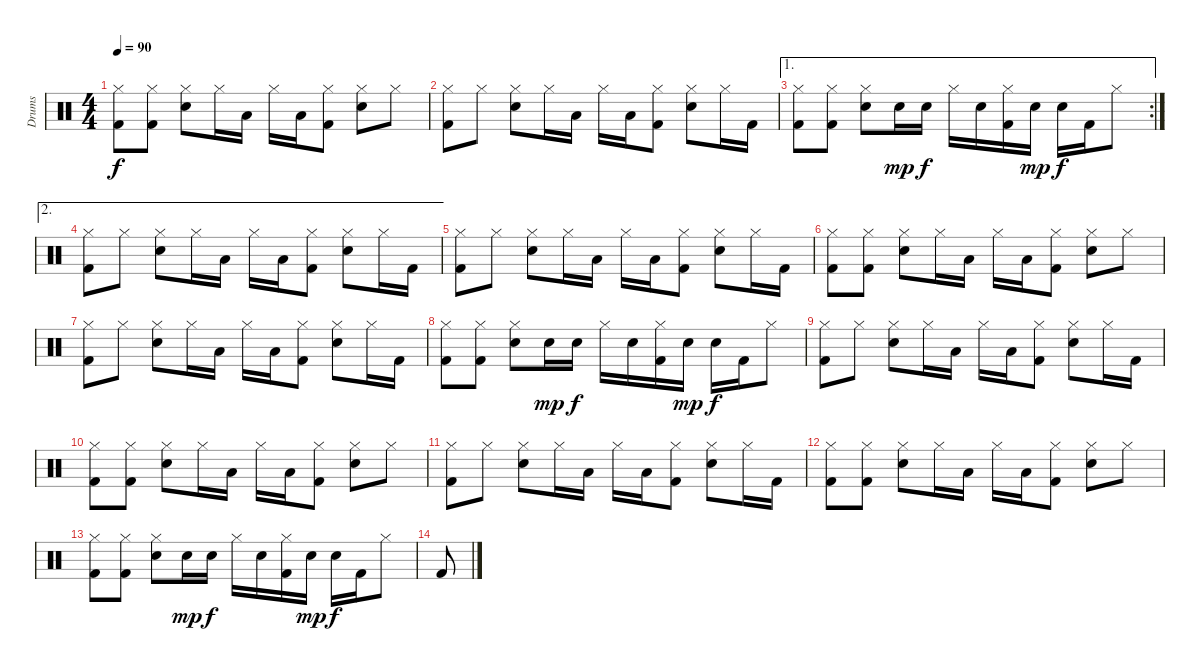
\track ("Drums" "Drums") {instrument percussion}
\staff {score}
\articulation defaults
\ts (4 4)
\tempo 90
\clef neutral
\ks c
("Hi-Hat (closed)" "Kick (hit) 2").8{dy f} ("Hi-Hat (closed)" "Kick (hit) 2").8 ("Hand Clap (hit)" "Hi-Hat (closed)").8 "Hi-Hat (closed)".16 "Low Tom (hit)".16 "Hi-Hat (closed)".16 "Low Tom (hit)".16 ("Hi-Hat (closed)" "Kick (hit) 2").8 ("Hand Clap (hit)" "Hi-Hat (closed)").8 "Hi-Hat (closed)".8 |
("Hi-Hat (closed)" "Kick (hit) 2").8 "Hi-Hat (closed)".8 ("Hand Clap (hit)" "Hi-Hat (closed)").8 "Hi-Hat (closed)".16 "Low Tom (hit)".16 "Hi-Hat (closed)".16 "Low Tom (hit)".16 ("Hi-Hat (closed)" "Kick (hit) 2").8 ("Hand Clap (hit)" "Hi-Hat (closed)").8 "Hi-Hat (closed)".16 "Kick (hit) 2".16 |
\ae 1
\rc 2
("Hi-Hat (closed)" "Kick (hit) 2").8 ("Hi-Hat (closed)" "Kick (hit) 2").8 ("Hand Clap (hit)" "Hi-Hat (closed)").8 "Electric Snare (hit)".16{dy mp} "Electric Snare (hit)".16{dy f} "Hi-Hat (closed)".16 "Electric Snare (hit)".16 ("Hi-Hat (closed)" "Kick (hit) 2").16 "Electric Snare (hit)".16{dy mp} "Electric Snare (hit)".16{dy f} "Kick (hit) 2".16 "Hi-Hat (closed)".8 |
\ae 2
("Hi-Hat (closed)" "Kick (hit) 2").8 "Hi-Hat (closed)".8 ("Hand Clap (hit)" "Hi-Hat (closed)").8 "Hi-Hat (closed)".16 "Low Tom (hit)".16 "Hi-Hat (closed)".16 "Low Tom (hit)".16 ("Hi-Hat (closed)" "Kick (hit) 2").8 ("Hand Clap (hit)" "Hi-Hat (closed)").8 "Hi-Hat (closed)".16 "Kick (hit) 2".16 |
("Hi-Hat (closed)" "Kick (hit) 2").8 "Hi-Hat (closed)".8 ("Hand Clap (hit)" "Hi-Hat (closed)").8 "Hi-Hat (closed)".16 "Low Tom (hit)".16 "Hi-Hat (closed)".16 "Low Tom (hit)".16 ("Hi-Hat (closed)" "Kick (hit) 2").8 ("Hand Clap (hit)" "Hi-Hat (closed)").8 "Hi-Hat (closed)".16 "Kick (hit) 2".16 |
("Hi-Hat (closed)" "Kick (hit) 2").8 ("Hi-Hat (closed)" "Kick (hit) 2").8 ("Hand Clap (hit)" "Hi-Hat (closed)").8 "Hi-Hat (closed)".16 "Low Tom (hit)".16 "Hi-Hat (closed)".16 "Low Tom (hit)".16 ("Hi-Hat (closed)" "Kick (hit) 2").8 ("Hand Clap (hit)" "Hi-Hat (closed)").8 "Hi-Hat (closed)".8 |
("Hi-Hat (closed)" "Kick (hit) 2").8 "Hi-Hat (closed)".8 ("Hand Clap (hit)" "Hi-Hat (closed)").8 "Hi-Hat (closed)".16 "Low Tom (hit)".16 "Hi-Hat (closed)".16 "Low Tom (hit)".16 ("Hi-Hat (closed)" "Kick (hit) 2").8 ("Hand Clap (hit)" "Hi-Hat (closed)").8 "Hi-Hat (closed)".16 "Kick (hit) 2".16 |
("Hi-Hat (closed)" "Kick (hit) 2").8 ("Hi-Hat (closed)" "Kick (hit) 2").8 ("Hand Clap (hit)" "Hi-Hat (closed)").8 "Electric Snare (hit)".16{dy mp} "Electric Snare (hit)".16{dy f} "Hi-Hat (closed)".16 "Electric Snare (hit)".16 ("Hi-Hat (closed)" "Kick (hit) 2").16 "Electric Snare (hit)".16{dy mp} "Electric Snare (hit)".16{dy f} "Kick (hit) 2".16 "Hi-Hat (closed)".8 |
("Hi-Hat (closed)" "Kick (hit) 2").8 "Hi-Hat (closed)".8 ("Hand Clap (hit)" "Hi-Hat (closed)").8 "Hi-Hat (closed)".16 "Low Tom (hit)".16 "Hi-Hat (closed)".16 "Low Tom (hit)".16 ("Hi-Hat (closed)" "Kick (hit) 2").8 ("Hand Clap (hit)" "Hi-Hat (closed)").8 "Hi-Hat (closed)".16 "Kick (hit) 2".16 |
("Hi-Hat (closed)" "Kick (hit) 2").8 ("Hi-Hat (closed)" "Kick (hit) 2").8 ("Hand Clap (hit)" "Hi-Hat (closed)").8 "Hi-Hat (closed)".16 "Low Tom (hit)".16 "Hi-Hat (closed)".16 "Low Tom (hit)".16 ("Hi-Hat (closed)" "Kick (hit) 2").8 ("Hand Clap (hit)" "Hi-Hat (closed)").8 "Hi-Hat (closed)".8 |
("Hi-Hat (closed)" "Kick (hit) 2").8 "Hi-Hat (closed)".8 ("Hand Clap (hit)" "Hi-Hat (closed)").8 "Hi-Hat (closed)".16 "Low Tom (hit)".16 "Hi-Hat (closed)".16 "Low Tom (hit)".16 ("Hi-Hat (closed)" "Kick (hit) 2").8 ("Hand Clap (hit)" "Hi-Hat (closed)").8 "Hi-Hat (closed)".16 "Kick (hit) 2".16 |
("Hi-Hat (closed)" "Kick (hit) 2").8 ("Hi-Hat (closed)" "Kick (hit) 2").8 ("Hand Clap (hit)" "Hi-Hat (closed)").8 "Hi-Hat (closed)".16 "Low Tom (hit)".16 "Hi-Hat (closed)".16 "Low Tom (hit)".16 ("Hi-Hat (closed)" "Kick (hit) 2").8 ("Hand Clap (hit)" "Hi-Hat (closed)").8 "Hi-Hat (closed)".8 |
("Hi-Hat (closed)" "Kick (hit) 2").8 ("Hi-Hat (closed)" "Kick (hit) 2").8 ("Hand Clap (hit)" "Hi-Hat (closed)").8 "Electric Snare (hit)".16{dy mp} "Electric Snare (hit)".16{dy f} "Hi-Hat (closed)".16 "Electric Snare (hit)".16 ("Hi-Hat (closed)" "Kick (hit) 2").16 "Electric Snare (hit)".16{dy mp} "Electric Snare (hit)".16{dy f} "Kick (hit) 2".16 "Hi-Hat (closed)".8 |
"Kick (hit) 2".8
